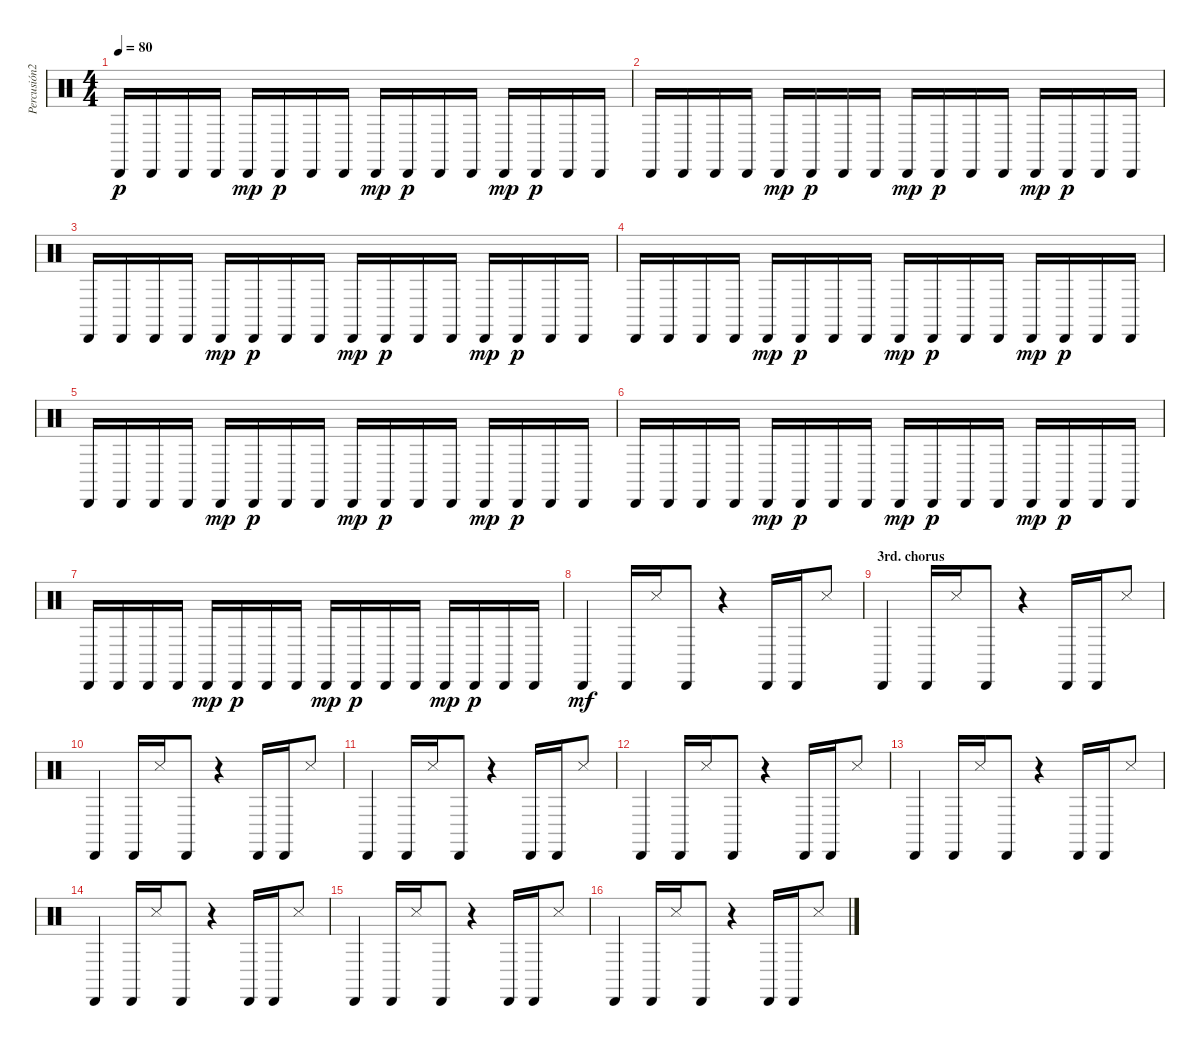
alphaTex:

\track ("Percusión2" "Percusión2") {instrument percussion}
\staff {score}
\articulation defaults
\ts (4 4)
\tempo 80
\clef neutral
\ks c "Cabasa (hit)".16{dy p} "Cabasa (hit)".16 "Cabasa (hit)".16 "Cabasa (hit)".16 "Cabasa (hit)".16{dy mp} "Cabasa (hit)".16{dy p} "Cabasa (hit)".16 "Cabasa (hit)".16 "Cabasa (hit)".16{dy mp} "Cabasa (hit)".16{dy p} "Cabasa (hit)".16 "Cabasa (hit)".16 "Cabasa (hit)".16{dy mp} "Cabasa (hit)".16{dy p} "Cabasa (hit)".16 "Cabasa (hit)".16
|
"Cabasa (hit)".16 "Cabasa (hit)".16 "Cabasa (hit)".16 "Cabasa (hit)".16 "Cabasa (hit)".16{dy mp} "Cabasa (hit)".16{dy p} "Cabasa (hit)".16 "Cabasa (hit)".16 "Cabasa (hit)".16{dy mp} "Cabasa (hit)".16{dy p} "Cabasa (hit)".16 "Cabasa (hit)".16 "Cabasa (hit)".16{dy mp} "Cabasa (hit)".16{dy p} "Cabasa (hit)".16 "Cabasa (hit)".16 |
"Cabasa (hit)".16 "Cabasa (hit)".16 "Cabasa (hit)".16 "Cabasa (hit)".16 "Cabasa (hit)".16{dy mp} "Cabasa (hit)".16{dy p} "Cabasa (hit)".16 "Cabasa (hit)".16 "Cabasa (hit)".16{dy mp} "Cabasa (hit)".16{dy p} "Cabasa (hit)".16 "Cabasa (hit)".16 "Cabasa (hit)".16{dy mp} "Cabasa (hit)".16{dy p} "Cabasa (hit)".16 "Cabasa (hit)".16 |
"Cabasa (hit)".16 "Cabasa (hit)".16 "Cabasa (hit)".16 "Cabasa (hit)".16 "Cabasa (hit)".16{dy mp} "Cabasa (hit)".16{dy p} "Cabasa (hit)".16 "Cabasa (hit)".16 "Cabasa (hit)".16{dy mp} "Cabasa (hit)".16{dy p} "Cabasa (hit)".16 "Cabasa (hit)".16 "Cabasa (hit)".16{dy mp} "Cabasa (hit)".16{dy p} "Cabasa (hit)".16 "Cabasa (hit)".16 |
"Cabasa (hit)".16 "Cabasa (hit)".16 "Cabasa (hit)".16 "Cabasa (hit)".16 "Cabasa (hit)".16{dy mp} "Cabasa (hit)".16{dy p} "Cabasa (hit)".16 "Cabasa (hit)".16 "Cabasa (hit)".16{dy mp} "Cabasa (hit)".16{dy p} "Cabasa (hit)".16 "Cabasa (hit)".16 "Cabasa (hit)".16{dy mp} "Cabasa (hit)".16{dy p} "Cabasa (hit)".16 "Cabasa (hit)".16 |
"Cabasa (hit)".16 "Cabasa (hit)".16 "Cabasa (hit)".16 "Cabasa (hit)".16 "Cabasa (hit)".16{dy mp} "Cabasa (hit)".16{dy p} "Cabasa (hit)".16 "Cabasa (hit)".16 "Cabasa (hit)".16{dy mp} "Cabasa (hit)".16{dy p} "Cabasa (hit)".16 "Cabasa (hit)".16 "Cabasa (hit)".16{dy mp} "Cabasa (hit)".16{dy p} "Cabasa (hit)".16 "Cabasa (hit)".16 |
"Cabasa (hit)".16 "Cabasa (hit)".16 "Cabasa (hit)".16 "Cabasa (hit)".16 "Cabasa (hit)".16{dy mp} "Cabasa (hit)".16{dy p} "Cabasa (hit)".16 "Cabasa (hit)".16 "Cabasa (hit)".16{dy mp} "Cabasa (hit)".16{dy p} "Cabasa (hit)".16 "Cabasa (hit)".16 "Cabasa (hit)".16{dy mp} "Cabasa (hit)".16{dy p} "Cabasa (hit)".16 "Cabasa (hit)".16 |
"Cabasa (hit)".4{dy mf} "Cabasa (hit)".16 "Snare (side stick) 3".16 "Cabasa (hit)".8 r.4 "Cabasa (hit)".16 "Cabasa (hit)".16 "Snare (side stick) 3".8 |
\section ("" "3rd. chorus")
"Cabasa (hit)".4 "Cabasa (hit)".16 "Snare (side stick) 3".16 "Cabasa (hit)".8 r.4 "Cabasa (hit)".16 "Cabasa (hit)".16 "Snare (side stick) 3".8 |
"Cabasa (hit)".4 "Cabasa (hit)".16 "Snare (side stick) 3".16 "Cabasa (hit)".8 r.4 "Cabasa (hit)".16 "Cabasa (hit)".16 "Snare (side stick) 3".8 |
"Cabasa (hit)".4 "Cabasa (hit)".16 "Snare (side stick) 3".16 "Cabasa (hit)".8 r.4 "Cabasa (hit)".16 "Cabasa (hit)".16 "Snare (side stick) 3".8 |
"Cabasa (hit)".4 "Cabasa (hit)".16 "Snare (side stick) 3".16 "Cabasa (hit)".8 r.4 "Cabasa (hit)".16 "Cabasa (hit)".16 "Snare (side stick) 3".8 |
"Cabasa (hit)".4 "Cabasa (hit)".16 "Snare (side stick) 3".16 "Cabasa (hit)".8 r.4 "Cabasa (hit)".16 "Cabasa (hit)".16 "Snare (side stick) 3".8 |
"Cabasa (hit)".4 "Cabasa (hit)".16 "Snare (side stick) 3".16 "Cabasa (hit)".8 r.4 "Cabasa (hit)".16 "Cabasa (hit)".16 "Snare (side stick) 3".8 |
"Cabasa (hit)".4 "Cabasa (hit)".16 "Snare (side stick) 3".16 "Cabasa (hit)".8 r.4 "Cabasa (hit)".16 "Cabasa (hit)".16 "Snare (side stick) 3".8 |
"Cabasa (hit)".4 "Cabasa (hit)".16 "Snare (side stick) 3".16 "Cabasa (hit)".8 r.4 "Cabasa (hit)".16 "Cabasa (hit)".16 "Snare (side stick) 3".8
